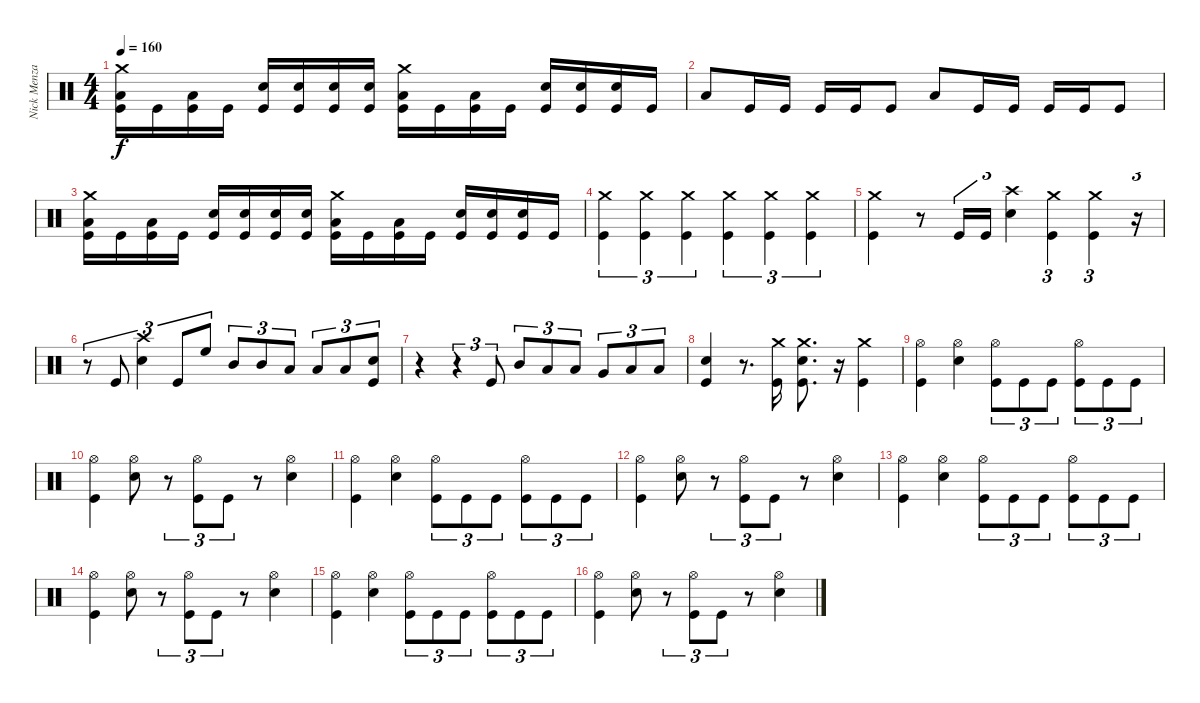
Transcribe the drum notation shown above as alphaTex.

\track ("Nick Menza" "Nick Menza") {instrument percussion}
\staff {score}
\articulation defaults
\ts (4 4)
\tempo 160
\clef neutral
\ks c
("Crash medium (hit)" "Low Floor Tom (hit)" "Kick (hit)").16{dy f} "Kick (hit)".16 ("Low Floor Tom (hit)" "Kick (hit)").16 "Kick (hit)".16 ("Snare (hit) 2" "Kick (hit)").16 ("Snare (hit) 2" "Kick (hit)").16 ("Snare (hit) 2" "Kick (hit)").16 ("Snare (hit) 2" "Kick (hit)").16 ("Crash medium (hit)" "Low Floor Tom (hit)" "Kick (hit)").16 "Kick (hit)".16 ("Low Floor Tom (hit)" "Kick (hit)").16 "Kick (hit)".16 ("Snare (hit) 2" "Kick (hit)").16 ("Snare (hit) 2" "Kick (hit)").16 ("Snare (hit) 2" "Kick (hit)").16 "Kick (hit)".16 |
"Low Floor Tom (hit)".8 "Kick (hit)".16 "Kick (hit)".16 "Kick (hit)".16 "Kick (hit)".16 "Kick (hit)".8 "Low Floor Tom (hit)".8 "Kick (hit)".16 "Kick (hit)".16 "Kick (hit)".16 "Kick (hit)".16 "Kick (hit)".8 |
("Crash medium (hit)" "Low Floor Tom (hit)" "Kick (hit)").16 "Kick (hit)".16 ("Low Floor Tom (hit)" "Kick (hit)").16 "Kick (hit)".16 ("Snare (hit) 2" "Kick (hit)").16 ("Snare (hit) 2" "Kick (hit)").16 ("Snare (hit) 2" "Kick (hit)").16 ("Snare (hit) 2" "Kick (hit)").16 ("Crash medium (hit)" "Low Floor Tom (hit)" "Kick (hit)").16 "Kick (hit)".16 ("Low Floor Tom (hit)" "Kick (hit)").16 "Kick (hit)".16 ("Snare (hit) 2" "Kick (hit)").16 ("Snare (hit) 2" "Kick (hit)").16 ("Snare (hit) 2" "Kick (hit)").16 "Kick (hit)".16 |
("Crash medium (hit)" "Kick (hit)").4{tu (3 2)} ("Crash medium (hit)" "Kick (hit)").4{tu (3 2)} ("Crash medium (hit)" "Kick (hit)").4{tu (3 2)} ("Crash medium (hit)" "Kick (hit)").4{tu (3 2)} ("Crash medium (hit)" "Kick (hit)").4{tu (3 2)} ("Crash medium (hit)" "Kick (hit)").4{tu (3 2)} |
("Crash medium (hit)" "Kick (hit)").4 r.8 "Kick (hit)".16{tu (3 2)} "Kick (hit)".16{tu (3 2)} ("Crash high (hit)" "Snare (hit) 2").4{tu (3 2)} ("Crash medium (hit)" "Kick (hit)").4{tu (3 2)} ("Crash medium (hit)" "Kick (hit)").4{tu (3 2)} r.16{tu (3 2)} |
r.8{tu (3 2)} "Kick (hit)".8{tu (3 2)} ("Crash high (hit)" "Snare (hit) 2").4{tu (3 2)} "Kick (hit)".8{tu (3 2)} "High Floor Tom (hit)".8{tu (3 2)} "Mid Tom (hit)".8{tu (3 2)} "Mid Tom (hit)".8{tu (3 2)} "Low Tom (hit)".8{tu (3 2)} "Low Tom (hit)".8{tu (3 2)} "Low Tom (hit)".8{tu (3 2)} ("Electric Snare (hit)" "Kick (hit)").8{tu (3 2)} |
r.4 r.4{tu (3 2)} "Kick (hit)".8{tu (3 2)} "Mid Tom (hit)".8{tu (3 2)} "Low Tom (hit)".8{tu (3 2)} "Low Tom (hit)".8{tu (3 2)} "Very Low Tom (hit)".8{tu (3 2)} "Low Floor Tom (hit)".8{tu (3 2)} "Low Floor Tom (hit)".8{tu (3 2)} |
("Snare (hit) 2" "Kick (hit)").4 r.8{d} ("Crash medium (hit)" "Kick (hit)").16 ("Crash medium (hit)" "Snare (hit) 2" "Kick (hit)").8{d} r.16 ("Crash medium (hit)" "Kick (hit)").4 |
("Hi-Hat (open)" "Kick (hit)").4 ("Hi-Hat (open)" "Snare (hit) 2").4 ("Hi-Hat (open)" "Kick (hit)").8{tu (3 2)} "Kick (hit)".8{tu (3 2)} "Kick (hit)".8{tu (3 2)} ("Hi-Hat (open)" "Kick (hit)").8{tu (3 2)} "Kick (hit)".8{tu (3 2)} "Kick (hit)".8{tu (3 2)} |
("Hi-Hat (open)" "Kick (hit)").4 ("Hi-Hat (open)" "Snare (hit) 2").8 r.8{tu (3 2)} ("Hi-Hat (open)" "Kick (hit)").8{tu (3 2)} "Kick (hit)".8{tu (3 2)} r.8 ("Hi-Hat (open)" "Snare (hit) 2").4 |
("Hi-Hat (open)" "Kick (hit)").4 ("Hi-Hat (open)" "Snare (hit) 2").4 ("Hi-Hat (open)" "Kick (hit)").8{tu (3 2)} "Kick (hit)".8{tu (3 2)} "Kick (hit)".8{tu (3 2)} ("Hi-Hat (open)" "Kick (hit)").8{tu (3 2)} "Kick (hit)".8{tu (3 2)} "Kick (hit)".8{tu (3 2)} |
("Hi-Hat (open)" "Kick (hit)").4 ("Hi-Hat (open)" "Snare (hit) 2").8 r.8{tu (3 2)} ("Hi-Hat (open)" "Kick (hit)").8{tu (3 2)} "Kick (hit)".8{tu (3 2)} r.8 ("Hi-Hat (open)" "Snare (hit) 2").4 |
("Hi-Hat (open)" "Kick (hit)").4 ("Hi-Hat (open)" "Snare (hit) 2").4 ("Hi-Hat (open)" "Kick (hit)").8{tu (3 2)} "Kick (hit)".8{tu (3 2)} "Kick (hit)".8{tu (3 2)} ("Hi-Hat (open)" "Kick (hit)").8{tu (3 2)} "Kick (hit)".8{tu (3 2)} "Kick (hit)".8{tu (3 2)} |
("Hi-Hat (open)" "Kick (hit)").4 ("Hi-Hat (open)" "Snare (hit) 2").8 r.8{tu (3 2)} ("Hi-Hat (open)" "Kick (hit)").8{tu (3 2)} "Kick (hit)".8{tu (3 2)} r.8 ("Hi-Hat (open)" "Snare (hit) 2").4 |
("Hi-Hat (open)" "Kick (hit)").4 ("Hi-Hat (open)" "Snare (hit) 2").4 ("Hi-Hat (open)" "Kick (hit)").8{tu (3 2)} "Kick (hit)".8{tu (3 2)} "Kick (hit)".8{tu (3 2)} ("Hi-Hat (open)" "Kick (hit)").8{tu (3 2)} "Kick (hit)".8{tu (3 2)} "Kick (hit)".8{tu (3 2)} |
("Hi-Hat (open)" "Kick (hit)").4 ("Hi-Hat (open)" "Snare (hit) 2").8 r.8{tu (3 2)} ("Hi-Hat (open)" "Kick (hit)").8{tu (3 2)} "Kick (hit)".8{tu (3 2)} r.8 ("Hi-Hat (open)" "Snare (hit) 2").4
